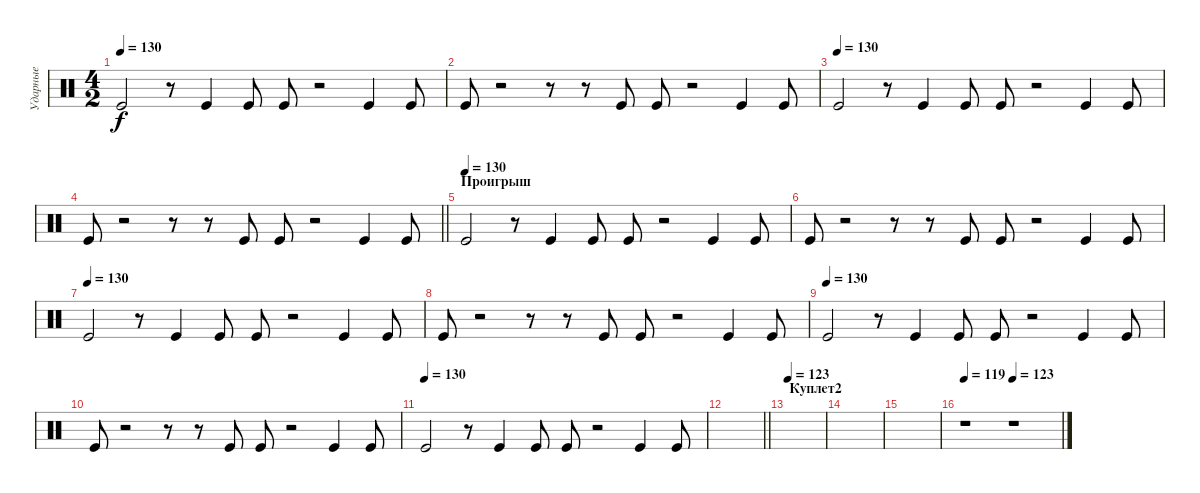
\track ("Ударные" "Ударные") {instrument percussion}
\staff {score}
\articulation defaults
\ts (4 2)
\tempo 130
\clef neutral
\ks c "Kick (hit)".2{dy f}
r.8 "Kick (hit)".4 "Kick (hit)".8 "Kick (hit)".8 r.2 "Kick (hit)".4 "Kick (hit)".8 |
"Kick (hit)".8 r.2 r.8 r.8 "Kick (hit)".8 "Kick (hit)".8 r.2 "Kick (hit)".4 "Kick (hit)".8 |
\tempo (130)
"Kick (hit)".2 r.8 "Kick (hit)".4 "Kick (hit)".8 "Kick (hit)".8 r.2 "Kick (hit)".4 "Kick (hit)".8 |
\barLineRight lightlight "Kick (hit)".8
r.2 r.8 r.8 "Kick (hit)".8 "Kick (hit)".8 r.2 "Kick (hit)".4 "Kick (hit)".8 |
\section ("" "Проигрыш")
\tempo (130)
"Kick (hit)".2 r.8 "Kick (hit)".4 "Kick (hit)".8 "Kick (hit)".8 r.2 "Kick (hit)".4 "Kick (hit)".8 |
"Kick (hit)".8 r.2 r.8 r.8 "Kick (hit)".8 "Kick (hit)".8 r.2 "Kick (hit)".4 "Kick (hit)".8 |
\tempo (130)
"Kick (hit)".2 r.8 "Kick (hit)".4 "Kick (hit)".8 "Kick (hit)".8 r.2 "Kick (hit)".4 "Kick (hit)".8 |
"Kick (hit)".8 r.2 r.8 r.8 "Kick (hit)".8 "Kick (hit)".8 r.2 "Kick (hit)".4 "Kick (hit)".8 |
\tempo (130)
"Kick (hit)".2 r.8 "Kick (hit)".4 "Kick (hit)".8 "Kick (hit)".8 r.2 "Kick (hit)".4 "Kick (hit)".8 |
"Kick (hit)".8 r.2 r.8 r.8 "Kick (hit)".8 "Kick (hit)".8 r.2 "Kick (hit)".4 "Kick (hit)".8 |
\tempo (130)
"Kick (hit)".2 r.8 "Kick (hit)".4 "Kick (hit)".8 "Kick (hit)".8 r.2 "Kick (hit)".4 "Kick (hit)".8 |
\barLineRight lightlight
|
\section ("" "Куплет2")
\tempo 123
|
|
|
\tempo 119
\tempo (123 0.5)
r.1 r.1
